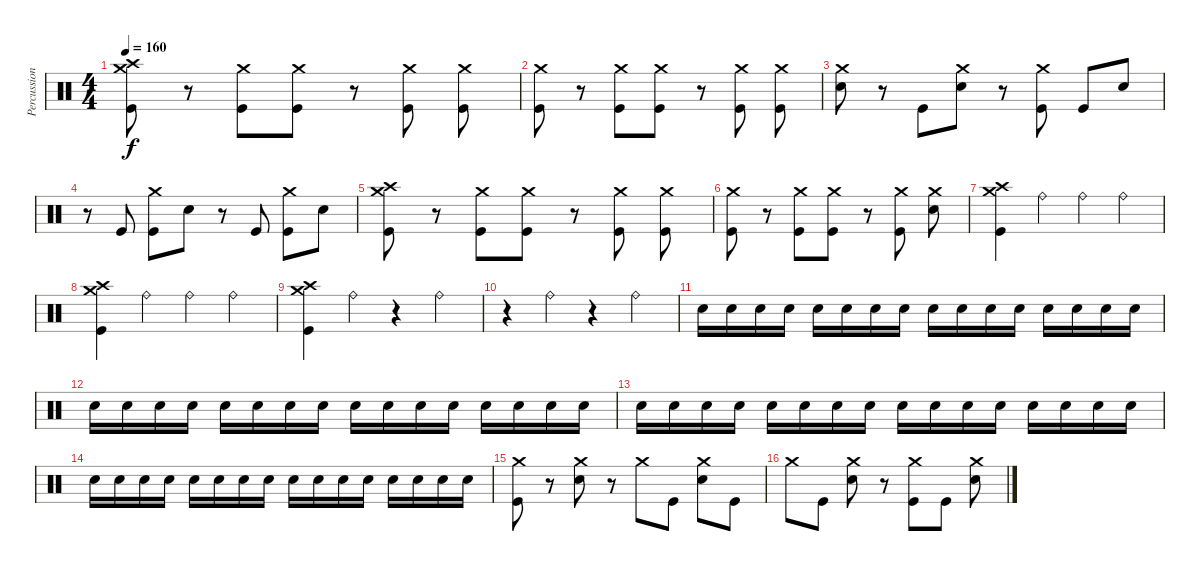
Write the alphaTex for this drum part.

\track ("Percussion" "Percussion") {instrument percussion}
\staff {score}
\articulation defaults
\ts (4 4)
\tempo 160
\clef neutral
\ks c
("Crash medium (hit)" "Crash high (hit)" "Kick (hit)").8{dy f} r.8 ("Crash medium (hit)" "Kick (hit)").8 ("Crash medium (hit)" "Kick (hit)").8 r.8 ("Crash medium (hit)" "Kick (hit)").8 ("Crash medium (hit)" "Kick (hit)").8 |
("Crash medium (hit)" "Kick (hit)").8 r.8 ("Crash medium (hit)" "Kick (hit)").8 ("Crash medium (hit)" "Kick (hit)").8 r.8 ("Crash medium (hit)" "Kick (hit)").8 ("Crash medium (hit)" "Kick (hit)").8 |
("Crash medium (hit)" "Electric Snare (hit)").8 r.8 "Kick (hit)".8 ("Crash medium (hit)" "Electric Snare (hit)").8 r.8 ("Crash medium (hit)" "Kick (hit)").8 "Kick (hit)".8 "Electric Snare (hit)".8 |
r.8 "Kick (hit)".8 ("Crash medium (hit)" "Kick (hit)").8 "Electric Snare (hit)".8 r.8 "Kick (hit)".8 ("Crash medium (hit)" "Kick (hit)").8 "Electric Snare (hit)".8 |
("Crash medium (hit)" "Crash high (hit)" "Kick (hit)").8 r.8 ("Crash medium (hit)" "Kick (hit)").8 ("Crash medium (hit)" "Kick (hit)").8 r.8 ("Crash medium (hit)" "Kick (hit)").8 ("Crash medium (hit)" "Kick (hit)").8 |
("Crash medium (hit)" "Kick (hit)").8 r.8 ("Crash medium (hit)" "Kick (hit)").8 ("Crash medium (hit)" "Kick (hit)").8 r.8 ("Crash medium (hit)" "Kick (hit)").8 ("Crash medium (hit)" "Electric Snare (hit)").8 |
("Crash medium (hit)" "Crash high (hit)" "Kick (hit)").4 "Ride (bell)".4 "Ride (bell)".4 "Ride (bell)".4 |
("Crash medium (hit)" "Crash high (hit)" "Kick (hit)").4 "Ride (bell)".4 "Ride (bell)".4 "Ride (bell)".4 |
("Crash medium (hit)" "Crash high (hit)" "Kick (hit)").4 "Ride (bell)".4 r.4 "Ride (bell)".4 |
r.4 "Ride (bell)".4 r.4 "Ride (bell)".4 |
"Electric Snare (hit)".16{volume 10} "Electric Snare (hit)".16 "Electric Snare (hit)".16 "Electric Snare (hit)".16 "Electric Snare (hit)".16 "Electric Snare (hit)".16 "Electric Snare (hit)".16 "Electric Snare (hit)".16 "Electric Snare (hit)".16 "Electric Snare (hit)".16 "Electric Snare (hit)".16 "Electric Snare (hit)".16 "Electric Snare (hit)".16 "Electric Snare (hit)".16 "Electric Snare (hit)".16 "Electric Snare (hit)".16 |
"Electric Snare (hit)".16{volume 12} "Electric Snare (hit)".16 "Electric Snare (hit)".16 "Electric Snare (hit)".16 "Electric Snare (hit)".16 "Electric Snare (hit)".16 "Electric Snare (hit)".16 "Electric Snare (hit)".16 "Electric Snare (hit)".16 "Electric Snare (hit)".16 "Electric Snare (hit)".16 "Electric Snare (hit)".16 "Electric Snare (hit)".16 "Electric Snare (hit)".16 "Electric Snare (hit)".16 "Electric Snare (hit)".16 |
"Electric Snare (hit)".16{volume 14} "Electric Snare (hit)".16 "Electric Snare (hit)".16 "Electric Snare (hit)".16 "Electric Snare (hit)".16 "Electric Snare (hit)".16 "Electric Snare (hit)".16 "Electric Snare (hit)".16 "Electric Snare (hit)".16 "Electric Snare (hit)".16 "Electric Snare (hit)".16 "Electric Snare (hit)".16 "Electric Snare (hit)".16 "Electric Snare (hit)".16 "Electric Snare (hit)".16 "Electric Snare (hit)".16 |
"Electric Snare (hit)".16{volume 16} "Electric Snare (hit)".16 "Electric Snare (hit)".16 "Electric Snare (hit)".16 "Electric Snare (hit)".16 "Electric Snare (hit)".16 "Electric Snare (hit)".16 "Electric Snare (hit)".16 "Electric Snare (hit)".16 "Electric Snare (hit)".16 "Electric Snare (hit)".16 "Electric Snare (hit)".16 "Electric Snare (hit)".16 "Electric Snare (hit)".16 "Electric Snare (hit)".16 "Electric Snare (hit)".16 |
("Crash medium (hit)" "Kick (hit)").8 r.8 ("Crash medium (hit)" "Electric Snare (hit)").8 r.8 "Crash medium (hit)".8 "Kick (hit)".8 ("Crash medium (hit)" "Electric Snare (hit)").8 "Kick (hit)".8 |
"Crash medium (hit)".8 "Kick (hit)".8 ("Crash medium (hit)" "Electric Snare (hit)").8 r.8 ("Crash medium (hit)" "Kick (hit)").8 "Kick (hit)".8 ("Crash medium (hit)" "Electric Snare (hit)").8
